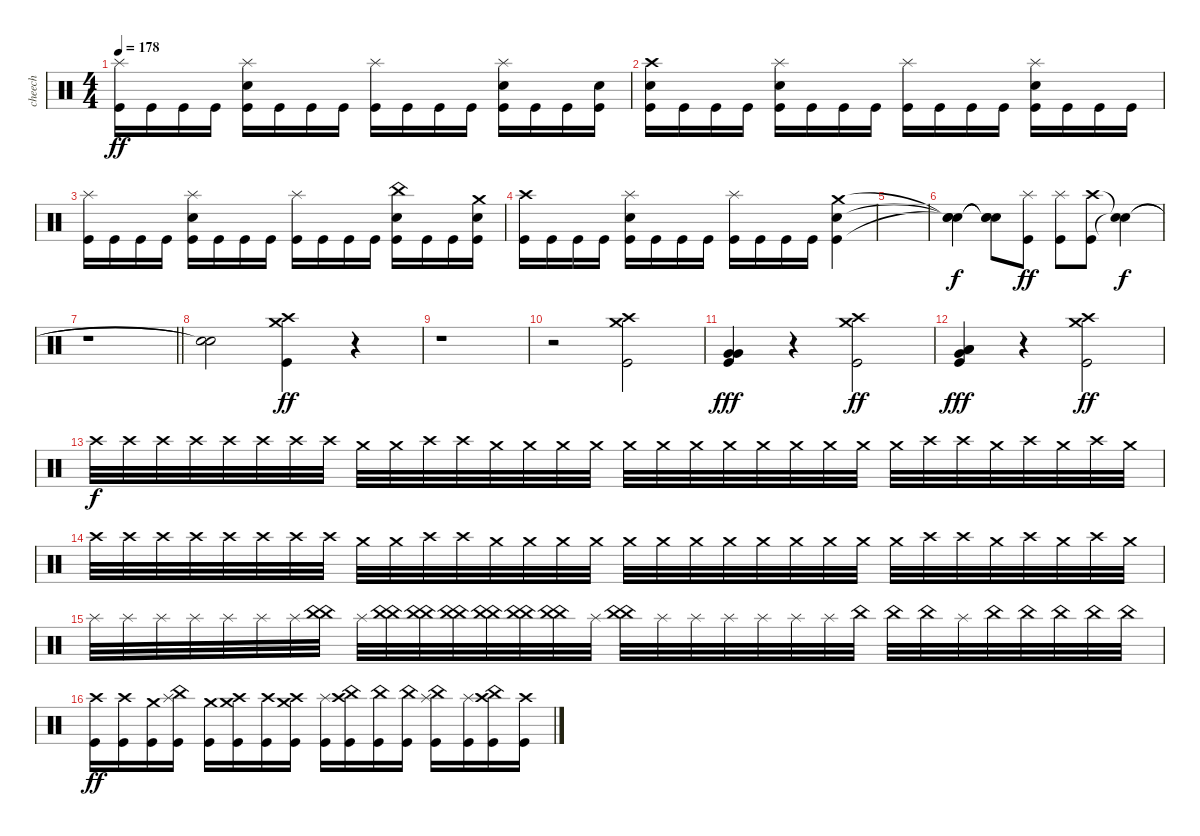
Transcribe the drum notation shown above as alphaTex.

\track ("cheech" "cheech") {solo instrument percussion}
\staff {score}
\articulation defaults
\ts (4 4)
\tempo 178
\clef neutral
\ks c
("Splash (hit)" "Kick (hit)").16{dy ff} "Kick (hit)".16 "Kick (hit)".16 "Kick (hit)".16 ("Splash (hit)" "Electric Snare (hit)" "Kick (hit)").16 "Kick (hit)".16 "Kick (hit)".16 "Kick (hit)".16 ("Splash (hit)" "Kick (hit)").16 "Kick (hit)".16 "Kick (hit)".16 "Kick (hit)".16 ("Splash (hit)" "Electric Snare (hit)" "Kick (hit)").16 "Kick (hit)".16 "Kick (hit)".16 ("Electric Snare (hit)" "Kick (hit)").16 |
("Crash high (hit)" "Electric Snare (hit)" "Kick (hit)").16 "Kick (hit)".16 "Kick (hit)".16 "Kick (hit)".16 ("Splash (hit)" "Electric Snare (hit)" "Kick (hit)").16 "Kick (hit)".16 "Kick (hit)".16 "Kick (hit)".16 ("Splash (hit)" "Kick (hit)").16 "Kick (hit)".16 "Kick (hit)".16 "Kick (hit)".16 ("Splash (hit)" "Electric Snare (hit)" "Kick (hit)").16 "Kick (hit)".16 "Kick (hit)".16 "Kick (hit)".16 |
("Splash (hit)" "Kick (hit)").16 "Kick (hit)".16 "Kick (hit)".16 "Kick (hit)".16 ("Splash (hit)" "Electric Snare (hit)" "Kick (hit)").16 "Kick (hit)".16 "Kick (hit)".16 "Kick (hit)".16 ("Splash (hit)" "Kick (hit)").16 "Kick (hit)".16 "Kick (hit)".16 "Kick (hit)".16 ("China (hit)" "Electric Snare (hit)" "Kick (hit)").16 "Kick (hit)".16 "Kick (hit)".16 ("Crash medium (hit)" "Electric Snare (hit)" "Kick (hit)").16 |
("Crash high (hit)" "Kick (hit)").16 "Kick (hit)".16 "Kick (hit)".16 "Kick (hit)".16 ("Splash (hit)" "Electric Snare (hit)" "Kick (hit)").16 "Kick (hit)".16 "Kick (hit)".16 "Kick (hit)".16 ("Splash (hit)" "Kick (hit)").16 "Kick (hit)".16 "Kick (hit)".16 "Kick (hit)".16 ("Crash medium (hit)" "Electric Snare (hit)" "Kick (hit)").4 |
|
("Snare (hit)"{t} "Snare (hit)"{t} "Snare (hit)"{t}).4{dy f} ("Snare (hit)"{t} "Snare (hit)"{t} "Snare (hit)"{t}).8 ("Splash (hit)" "Kick (hit)").8{dy ff} ("Splash (hit)" "Kick (hit)").8 ("Crash high (hit)" "Kick (hit)").8 ("Snare (hit)"{t} "Snare (hit)"{t}).4{dy f} |
\barLineRight lightlight
r.1 |
("Snare (hit)"{t} "Snare (hit)"{t}).2 ("Crash medium (hit)" "Crash high (hit)" "Kick (hit)").4{dy ff} r.4 |
r.1 |
r.2 ("Crash medium (hit)" "Crash high (hit)" "Kick (hit)").2 |
("Very Low Tom (hit)" "Very Low Tom (hit)" "Kick (hit)").4{dy fff} r.4 ("Crash medium (hit)" "Crash high (hit)" "Kick (hit)").2{dy ff} |
("Very Low Tom (hit)" "Low Floor Tom (hit)" "Low Floor Tom (hit)" "Kick (hit)").4{dy fff} r.4 ("Crash medium (hit)" "Crash high (hit)" "Kick (hit)").2{dy ff} |
"Crash high (hit)".32{dy f} "Crash high (hit)".32 "Crash high (hit)".32 "Crash high (hit)".32 "Crash high (hit)".32 "Crash high (hit)".32 "Crash high (hit)".32 "Crash high (hit)".32 "Crash medium (hit)".32 "Crash medium (hit)".32 "Crash high (hit)".32 "Crash high (hit)".32 "Crash medium (hit)".32 "Crash medium (hit)".32 "Crash medium (hit)".32 "Crash medium (hit)".32 "Crash medium (hit)".32 "Crash medium (hit)".32 "Crash medium (hit)".32 "Crash medium (hit)".32 "Crash medium (hit)".32 "Crash medium (hit)".32 "Crash medium (hit)".32 "Crash medium (hit)".32 "Crash medium (hit)".32 "Crash high (hit)".32 "Crash high (hit)".32 "Crash medium (hit)".32 "Crash high (hit)".32 "Crash medium (hit)".32 "Crash high (hit)".32 "Crash medium (hit)".32 |
"Crash high (hit)".32 "Crash high (hit)".32 "Crash high (hit)".32 "Crash high (hit)".32 "Crash high (hit)".32 "Crash high (hit)".32 "Crash high (hit)".32 "Crash high (hit)".32 "Crash medium (hit)".32 "Crash medium (hit)".32 "Crash high (hit)".32 "Crash high (hit)".32 "Crash medium (hit)".32 "Crash medium (hit)".32 "Crash medium (hit)".32 "Crash medium (hit)".32 "Crash medium (hit)".32 "Crash medium (hit)".32 "Crash medium (hit)".32 "Crash medium (hit)".32 "Crash medium (hit)".32 "Crash medium (hit)".32 "Crash medium (hit)".32 "Crash medium (hit)".32 "Crash medium (hit)".32 "Crash high (hit)".32 "Crash high (hit)".32 "Crash medium (hit)".32 "Crash high (hit)".32 "Crash medium (hit)".32 "Crash high (hit)".32 "Crash medium (hit)".32 |
"Splash (hit)".32 "Splash (hit)".32 "Splash (hit)".32 "Splash (hit)".32 "Splash (hit)".32 "Splash (hit)".32 "Splash (hit)".32 ("China (hit)" "China (hit)").32 "Splash (hit)".32 ("China (hit)" "China (hit)").32 ("China (hit)" "China (hit)").32 ("China (hit)" "China (hit)").32 ("China (hit)" "China (hit)").32 ("China (hit)" "China (hit)").32 ("China (hit)" "China (hit)").32 "Splash (hit)".32 ("China (hit)" "China (hit)").32 "Splash (hit)".32 "Splash (hit)".32 "Splash (hit)".32 "Splash (hit)".32 "Splash (hit)".32 "Splash (hit)".32 "China (hit)".32 "China (hit)".32 "China (hit)".32 "Splash (hit)".32 "China (hit)".32 "China (hit)".32 "China (hit)".32 "China (hit)".32 "China (hit)".32 |
("Crash high (hit)" "Kick (hit)").16{dy ff} ("Crash high (hit)" "Kick (hit)").16 ("Crash medium (hit)" "Kick (hit)").16 ("Splash (hit)" "China (hit)" "Kick (hit)").16 ("Crash medium (hit)" "Kick (hit)").16 ("Crash high (hit)" "Crash medium (hit)" "Kick (hit)").16 ("Crash high (hit)" "Kick (hit)").16 ("Crash medium (hit)" "Crash high (hit)" "Kick (hit)").16 ("Splash (hit)" "Kick (hit)").16 ("Crash high (hit)" "China (hit)" "Kick (hit)").16 ("China (hit)" "Kick (hit)").16 ("China (hit)" "Kick (hit)").16 ("Splash (hit)" "China (hit)" "Kick (hit)").16 ("Splash (hit)" "Kick (hit)").16 ("Crash high (hit)" "China (hit)" "Kick (hit)").16 ("Crash high (hit)" "Kick (hit)").16
